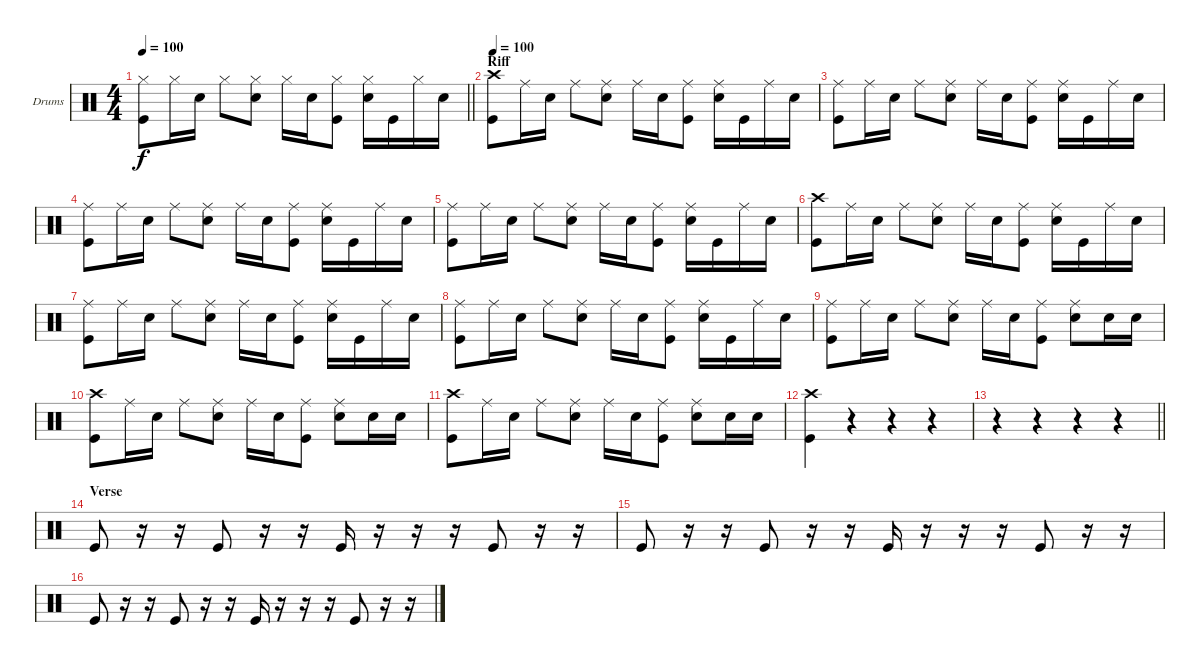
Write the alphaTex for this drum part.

\bracketExtendMode groupsimilarinstruments
\firstSystemTrackNameOrientation horizontal
\otherSystemsTrackNameOrientation horizontal
\track ("Fabrizio" "Drums") {instrument percussion}
\staff {score}
\articulation defaults
\ts (4 4)
\tempo 100
\clef neutral
\barLineRight lightlight
\ks c
("Hi-Hat (closed)" "Kick (hit)").8{dy f} "Hi-Hat (closed)".16 "Snare (hit) 2".16 "Hi-Hat (closed)".8 ("Hi-Hat (closed)" "Snare (hit) 2").8 "Hi-Hat (closed)".16 "Snare (hit) 2".16 ("Hi-Hat (closed)" "Kick (hit)").8 ("Hi-Hat (closed)" "Snare (hit) 2").16 "Kick (hit)".16 "Hi-Hat (closed)".16 "Snare (hit) 2".16 |
\section ("" "Riff")
\tempo 100
("Crash high (hit)" "Kick (hit)").8 "Ride (middle)".16 "Snare (hit) 2".16 "Ride (middle)".8 ("Ride (middle)" "Snare (hit) 2").8 "Ride (middle)".16 "Snare (hit) 2".16 ("Ride (middle)" "Kick (hit)").8 ("Ride (middle)" "Snare (hit) 2").16 "Kick (hit)".16 "Ride (middle)".16 "Snare (hit) 2".16 |
("Ride (middle)" "Kick (hit)").8 "Ride (middle)".16 "Snare (hit) 2".16 "Ride (middle)".8 ("Ride (middle)" "Snare (hit) 2").8 "Ride (middle)".16 "Snare (hit) 2".16 ("Ride (middle)" "Kick (hit)").8 ("Ride (middle)" "Snare (hit) 2").16 "Kick (hit)".16 "Ride (middle)".16 "Snare (hit) 2".16 |
("Ride (middle)" "Kick (hit)").8 "Ride (middle)".16 "Snare (hit) 2".16 "Ride (middle)".8 ("Ride (middle)" "Snare (hit) 2").8 "Ride (middle)".16 "Snare (hit) 2".16 ("Ride (middle)" "Kick (hit)").8 ("Ride (middle)" "Snare (hit) 2").16 "Kick (hit)".16 "Ride (middle)".16 "Snare (hit) 2".16 |
("Ride (middle)" "Kick (hit)").8 "Ride (middle)".16 "Snare (hit) 2".16 "Ride (middle)".8 ("Ride (middle)" "Snare (hit) 2").8 "Ride (middle)".16 "Snare (hit) 2".16 ("Ride (middle)" "Kick (hit)").8 ("Ride (middle)" "Snare (hit) 2").16 "Kick (hit)".16 "Ride (middle)".16 "Snare (hit) 2".16 |
("Crash high (hit)" "Kick (hit)").8 "Ride (middle)".16 "Snare (hit) 2".16 "Ride (middle)".8 ("Ride (middle)" "Snare (hit) 2").8 "Ride (middle)".16 "Snare (hit) 2".16 ("Ride (middle)" "Kick (hit)").8 ("Ride (middle)" "Snare (hit) 2").16 "Kick (hit)".16 "Ride (middle)".16 "Snare (hit) 2".16 |
("Ride (middle)" "Kick (hit)").8 "Ride (middle)".16 "Snare (hit) 2".16 "Ride (middle)".8 ("Ride (middle)" "Snare (hit) 2").8 "Ride (middle)".16 "Snare (hit) 2".16 ("Ride (middle)" "Kick (hit)").8 ("Ride (middle)" "Snare (hit) 2").16 "Kick (hit)".16 "Ride (middle)".16 "Snare (hit) 2".16 |
("Ride (middle)" "Kick (hit)").8 "Ride (middle)".16 "Snare (hit) 2".16 "Ride (middle)".8 ("Ride (middle)" "Snare (hit) 2").8 "Ride (middle)".16 "Snare (hit) 2".16 ("Ride (middle)" "Kick (hit)").8 ("Ride (middle)" "Snare (hit) 2").16 "Kick (hit)".16 "Ride (middle)".16 "Snare (hit) 2".16 |
("Ride (middle)" "Kick (hit)").8 "Ride (middle)".16 "Snare (hit) 2".16 "Ride (middle)".8 ("Ride (middle)" "Snare (hit) 2").8 "Ride (middle)".16 "Snare (hit) 2".16 ("Ride (middle)" "Kick (hit)").8 ("Ride (middle)" "Snare (hit) 2").8 "Snare (hit) 2".16 "Snare (hit) 2".16 |
("Crash high (hit)" "Kick (hit)").8 "Ride (middle)".16 "Snare (hit) 2".16 "Ride (middle)".8 ("Ride (middle)" "Snare (hit) 2").8 "Ride (middle)".16 "Snare (hit) 2".16 ("Ride (middle)" "Kick (hit)").8 ("Ride (middle)" "Snare (hit) 2").8 "Snare (hit) 2".16 "Snare (hit) 2".16 |
("Crash high (hit)" "Kick (hit)").8 "Ride (middle)".16 "Snare (hit) 2".16 "Ride (middle)".8 ("Ride (middle)" "Snare (hit) 2").8 "Ride (middle)".16 "Snare (hit) 2".16 ("Ride (middle)" "Kick (hit)").8 ("Ride (middle)" "Snare (hit) 2").8 "Snare (hit) 2".16 "Snare (hit) 2".16 |
("Crash high (hit)" "Kick (hit)").4 r.4 r.4 r.4 |
\barLineRight lightlight
r.4 r.4 r.4 r.4 |
\section ("" "Verse")
"Kick (hit)".8 r.16 r.16 "Kick (hit)".8 r.16 r.16 "Kick (hit)".16 r.16 r.16 r.16 "Kick (hit)".8 r.16 r.16 |
"Kick (hit)".8 r.16 r.16 "Kick (hit)".8 r.16 r.16 "Kick (hit)".16 r.16 r.16 r.16 "Kick (hit)".8 r.16 r.16 |
"Kick (hit)".8 r.16 r.16 "Kick (hit)".8 r.16 r.16 "Kick (hit)".16 r.16 r.16 r.16 "Kick (hit)".8 r.16 r.16
